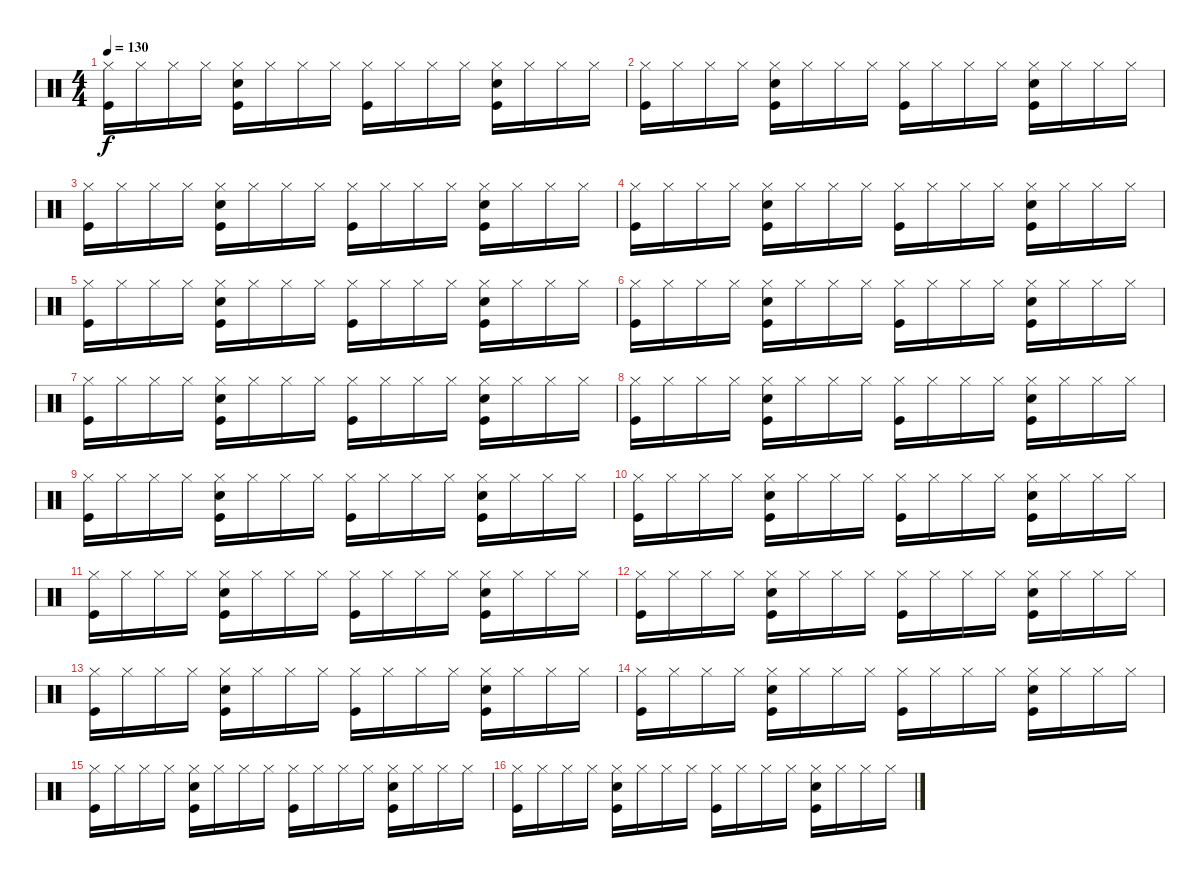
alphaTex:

\track "" {instrument percussion}
\staff {score}
\articulation defaults
\ts (4 4)
\tempo 130
\clef neutral
\ks c
("Hi-Hat (closed)" "Kick (hit)").16{dy f} "Hi-Hat (closed)".16 "Hi-Hat (closed)".16 "Hi-Hat (closed)".16 ("Snare (hit) 2" "Hi-Hat (closed)" "Kick (hit)").16 "Hi-Hat (closed)".16 "Hi-Hat (closed)".16 "Hi-Hat (closed)".16 ("Hi-Hat (closed)" "Kick (hit)").16 "Hi-Hat (closed)".16 "Hi-Hat (closed)".16 "Hi-Hat (closed)".16 ("Snare (hit) 2" "Hi-Hat (closed)" "Kick (hit)").16 "Hi-Hat (closed)".16 "Hi-Hat (closed)".16 "Hi-Hat (closed)".16 |
("Hi-Hat (closed)" "Kick (hit)").16 "Hi-Hat (closed)".16 "Hi-Hat (closed)".16 "Hi-Hat (closed)".16 ("Snare (hit) 2" "Hi-Hat (closed)" "Kick (hit)").16 "Hi-Hat (closed)".16 "Hi-Hat (closed)".16 "Hi-Hat (closed)".16 ("Hi-Hat (closed)" "Kick (hit)").16 "Hi-Hat (closed)".16 "Hi-Hat (closed)".16 "Hi-Hat (closed)".16 ("Snare (hit) 2" "Hi-Hat (closed)" "Kick (hit)").16 "Hi-Hat (closed)".16 "Hi-Hat (closed)".16 "Hi-Hat (closed)".16 |
("Hi-Hat (closed)" "Kick (hit)").16 "Hi-Hat (closed)".16 "Hi-Hat (closed)".16 "Hi-Hat (closed)".16 ("Snare (hit) 2" "Hi-Hat (closed)" "Kick (hit)").16 "Hi-Hat (closed)".16 "Hi-Hat (closed)".16 "Hi-Hat (closed)".16 ("Hi-Hat (closed)" "Kick (hit)").16 "Hi-Hat (closed)".16 "Hi-Hat (closed)".16 "Hi-Hat (closed)".16 ("Snare (hit) 2" "Hi-Hat (closed)" "Kick (hit)").16 "Hi-Hat (closed)".16 "Hi-Hat (closed)".16 "Hi-Hat (closed)".16 |
("Hi-Hat (closed)" "Kick (hit)").16 "Hi-Hat (closed)".16 "Hi-Hat (closed)".16 "Hi-Hat (closed)".16 ("Snare (hit) 2" "Hi-Hat (closed)" "Kick (hit)").16 "Hi-Hat (closed)".16 "Hi-Hat (closed)".16 "Hi-Hat (closed)".16 ("Hi-Hat (closed)" "Kick (hit)").16 "Hi-Hat (closed)".16 "Hi-Hat (closed)".16 "Hi-Hat (closed)".16 ("Snare (hit) 2" "Hi-Hat (closed)" "Kick (hit)").16 "Hi-Hat (closed)".16 "Hi-Hat (closed)".16 "Hi-Hat (closed)".16 |
("Hi-Hat (closed)" "Kick (hit)").16 "Hi-Hat (closed)".16 "Hi-Hat (closed)".16 "Hi-Hat (closed)".16 ("Snare (hit) 2" "Hi-Hat (closed)" "Kick (hit)").16 "Hi-Hat (closed)".16 "Hi-Hat (closed)".16 "Hi-Hat (closed)".16 ("Hi-Hat (closed)" "Kick (hit)").16 "Hi-Hat (closed)".16 "Hi-Hat (closed)".16 "Hi-Hat (closed)".16 ("Snare (hit) 2" "Hi-Hat (closed)" "Kick (hit)").16 "Hi-Hat (closed)".16 "Hi-Hat (closed)".16 "Hi-Hat (closed)".16 |
("Hi-Hat (closed)" "Kick (hit)").16 "Hi-Hat (closed)".16 "Hi-Hat (closed)".16 "Hi-Hat (closed)".16 ("Snare (hit) 2" "Hi-Hat (closed)" "Kick (hit)").16 "Hi-Hat (closed)".16 "Hi-Hat (closed)".16 "Hi-Hat (closed)".16 ("Hi-Hat (closed)" "Kick (hit)").16 "Hi-Hat (closed)".16 "Hi-Hat (closed)".16 "Hi-Hat (closed)".16 ("Snare (hit) 2" "Hi-Hat (closed)" "Kick (hit)").16 "Hi-Hat (closed)".16 "Hi-Hat (closed)".16 "Hi-Hat (closed)".16 |
("Hi-Hat (closed)" "Kick (hit)").16 "Hi-Hat (closed)".16 "Hi-Hat (closed)".16 "Hi-Hat (closed)".16 ("Snare (hit) 2" "Hi-Hat (closed)" "Kick (hit)").16 "Hi-Hat (closed)".16 "Hi-Hat (closed)".16 "Hi-Hat (closed)".16 ("Hi-Hat (closed)" "Kick (hit)").16 "Hi-Hat (closed)".16 "Hi-Hat (closed)".16 "Hi-Hat (closed)".16 ("Snare (hit) 2" "Hi-Hat (closed)" "Kick (hit)").16 "Hi-Hat (closed)".16 "Hi-Hat (closed)".16 "Hi-Hat (closed)".16 |
("Hi-Hat (closed)" "Kick (hit)").16 "Hi-Hat (closed)".16 "Hi-Hat (closed)".16 "Hi-Hat (closed)".16 ("Snare (hit) 2" "Hi-Hat (closed)" "Kick (hit)").16 "Hi-Hat (closed)".16 "Hi-Hat (closed)".16 "Hi-Hat (closed)".16 ("Hi-Hat (closed)" "Kick (hit)").16 "Hi-Hat (closed)".16 "Hi-Hat (closed)".16 "Hi-Hat (closed)".16 ("Snare (hit) 2" "Hi-Hat (closed)" "Kick (hit)").16 "Hi-Hat (closed)".16 "Hi-Hat (closed)".16 "Hi-Hat (closed)".16 |
("Hi-Hat (closed)" "Kick (hit)").16 "Hi-Hat (closed)".16 "Hi-Hat (closed)".16 "Hi-Hat (closed)".16 ("Snare (hit) 2" "Hi-Hat (closed)" "Kick (hit)").16 "Hi-Hat (closed)".16 "Hi-Hat (closed)".16 "Hi-Hat (closed)".16 ("Hi-Hat (closed)" "Kick (hit)").16 "Hi-Hat (closed)".16 "Hi-Hat (closed)".16 "Hi-Hat (closed)".16 ("Snare (hit) 2" "Hi-Hat (closed)" "Kick (hit)").16 "Hi-Hat (closed)".16 "Hi-Hat (closed)".16 "Hi-Hat (closed)".16 |
("Hi-Hat (closed)" "Kick (hit)").16 "Hi-Hat (closed)".16 "Hi-Hat (closed)".16 "Hi-Hat (closed)".16 ("Snare (hit) 2" "Hi-Hat (closed)" "Kick (hit)").16 "Hi-Hat (closed)".16 "Hi-Hat (closed)".16 "Hi-Hat (closed)".16 ("Hi-Hat (closed)" "Kick (hit)").16 "Hi-Hat (closed)".16 "Hi-Hat (closed)".16 "Hi-Hat (closed)".16 ("Snare (hit) 2" "Hi-Hat (closed)" "Kick (hit)").16 "Hi-Hat (closed)".16 "Hi-Hat (closed)".16 "Hi-Hat (closed)".16 |
("Hi-Hat (closed)" "Kick (hit)").16 "Hi-Hat (closed)".16 "Hi-Hat (closed)".16 "Hi-Hat (closed)".16 ("Snare (hit) 2" "Hi-Hat (closed)" "Kick (hit)").16 "Hi-Hat (closed)".16 "Hi-Hat (closed)".16 "Hi-Hat (closed)".16 ("Hi-Hat (closed)" "Kick (hit)").16 "Hi-Hat (closed)".16 "Hi-Hat (closed)".16 "Hi-Hat (closed)".16 ("Snare (hit) 2" "Hi-Hat (closed)" "Kick (hit)").16 "Hi-Hat (closed)".16 "Hi-Hat (closed)".16 "Hi-Hat (closed)".16 |
("Hi-Hat (closed)" "Kick (hit)").16 "Hi-Hat (closed)".16 "Hi-Hat (closed)".16 "Hi-Hat (closed)".16 ("Snare (hit) 2" "Hi-Hat (closed)" "Kick (hit)").16 "Hi-Hat (closed)".16 "Hi-Hat (closed)".16 "Hi-Hat (closed)".16 ("Hi-Hat (closed)" "Kick (hit)").16 "Hi-Hat (closed)".16 "Hi-Hat (closed)".16 "Hi-Hat (closed)".16 ("Snare (hit) 2" "Hi-Hat (closed)" "Kick (hit)").16 "Hi-Hat (closed)".16 "Hi-Hat (closed)".16 "Hi-Hat (closed)".16 |
("Hi-Hat (closed)" "Kick (hit)").16 "Hi-Hat (closed)".16 "Hi-Hat (closed)".16 "Hi-Hat (closed)".16 ("Snare (hit) 2" "Hi-Hat (closed)" "Kick (hit)").16 "Hi-Hat (closed)".16 "Hi-Hat (closed)".16 "Hi-Hat (closed)".16 ("Hi-Hat (closed)" "Kick (hit)").16 "Hi-Hat (closed)".16 "Hi-Hat (closed)".16 "Hi-Hat (closed)".16 ("Snare (hit) 2" "Hi-Hat (closed)" "Kick (hit)").16 "Hi-Hat (closed)".16 "Hi-Hat (closed)".16 "Hi-Hat (closed)".16 |
("Hi-Hat (closed)" "Kick (hit)").16 "Hi-Hat (closed)".16 "Hi-Hat (closed)".16 "Hi-Hat (closed)".16 ("Snare (hit) 2" "Hi-Hat (closed)" "Kick (hit)").16 "Hi-Hat (closed)".16 "Hi-Hat (closed)".16 "Hi-Hat (closed)".16 ("Hi-Hat (closed)" "Kick (hit)").16 "Hi-Hat (closed)".16 "Hi-Hat (closed)".16 "Hi-Hat (closed)".16 ("Snare (hit) 2" "Hi-Hat (closed)" "Kick (hit)").16 "Hi-Hat (closed)".16 "Hi-Hat (closed)".16 "Hi-Hat (closed)".16 |
("Hi-Hat (closed)" "Kick (hit)").16 "Hi-Hat (closed)".16 "Hi-Hat (closed)".16 "Hi-Hat (closed)".16 ("Snare (hit) 2" "Hi-Hat (closed)" "Kick (hit)").16 "Hi-Hat (closed)".16 "Hi-Hat (closed)".16 "Hi-Hat (closed)".16 ("Hi-Hat (closed)" "Kick (hit)").16 "Hi-Hat (closed)".16 "Hi-Hat (closed)".16 "Hi-Hat (closed)".16 ("Snare (hit) 2" "Hi-Hat (closed)" "Kick (hit)").16 "Hi-Hat (closed)".16 "Hi-Hat (closed)".16 "Hi-Hat (closed)".16 |
("Hi-Hat (closed)" "Kick (hit)").16 "Hi-Hat (closed)".16 "Hi-Hat (closed)".16 "Hi-Hat (closed)".16 ("Snare (hit) 2" "Hi-Hat (closed)" "Kick (hit)").16 "Hi-Hat (closed)".16 "Hi-Hat (closed)".16 "Hi-Hat (closed)".16 ("Hi-Hat (closed)" "Kick (hit)").16 "Hi-Hat (closed)".16 "Hi-Hat (closed)".16 "Hi-Hat (closed)".16 ("Snare (hit) 2" "Hi-Hat (closed)" "Kick (hit)").16 "Hi-Hat (closed)".16 "Hi-Hat (closed)".16 "Hi-Hat (closed)".16
